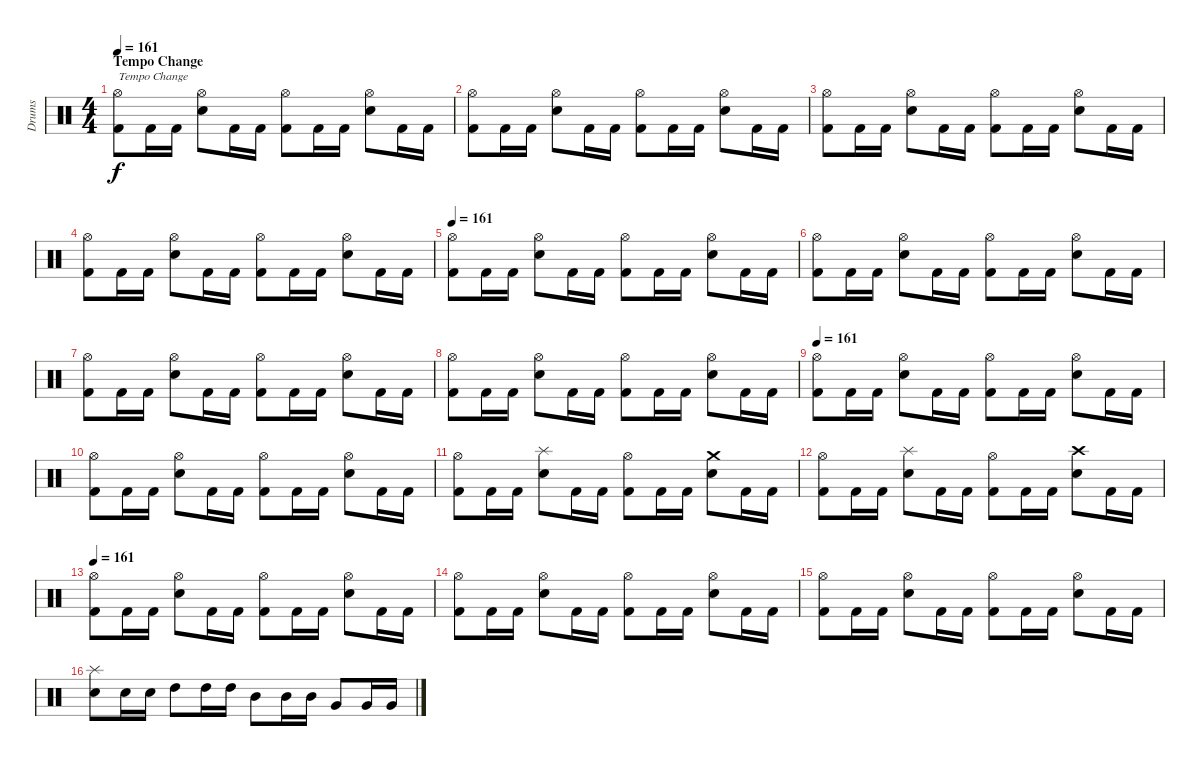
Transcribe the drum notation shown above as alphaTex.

\track ("Drums" "Drums") {instrument percussion}
\staff {score}
\articulation defaults
\ts (4 4)
\section ("" "Tempo Change")
\tempo 161
\clef neutral
\ks c
("Kick (hit) 2" "Hi-Hat (open)").8{txt "Tempo Change" dy f} "Kick (hit) 2".16 "Kick (hit) 2".16 ("Electric Snare (hit)" "Hi-Hat (open)").8 "Kick (hit) 2".16 "Kick (hit) 2".16 ("Kick (hit) 2" "Hi-Hat (open)").8 "Kick (hit) 2".16 "Kick (hit) 2".16 ("Electric Snare (hit)" "Hi-Hat (open)").8 "Kick (hit) 2".16 "Kick (hit) 2".16 |
("Kick (hit) 2" "Hi-Hat (open)").8 "Kick (hit) 2".16 "Kick (hit) 2".16 ("Electric Snare (hit)" "Hi-Hat (open)").8 "Kick (hit) 2".16 "Kick (hit) 2".16 ("Kick (hit) 2" "Hi-Hat (open)").8 "Kick (hit) 2".16 "Kick (hit) 2".16 ("Electric Snare (hit)" "Hi-Hat (open)").8 "Kick (hit) 2".16 "Kick (hit) 2".16 |
("Kick (hit) 2" "Hi-Hat (open)").8 "Kick (hit) 2".16 "Kick (hit) 2".16 ("Electric Snare (hit)" "Hi-Hat (open)").8 "Kick (hit) 2".16 "Kick (hit) 2".16 ("Kick (hit) 2" "Hi-Hat (open)").8 "Kick (hit) 2".16 "Kick (hit) 2".16 ("Electric Snare (hit)" "Hi-Hat (open)").8 "Kick (hit) 2".16 "Kick (hit) 2".16 |
("Kick (hit) 2" "Hi-Hat (open)").8 "Kick (hit) 2".16 "Kick (hit) 2".16 ("Electric Snare (hit)" "Hi-Hat (open)").8 "Kick (hit) 2".16 "Kick (hit) 2".16 ("Kick (hit) 2" "Hi-Hat (open)").8 "Kick (hit) 2".16 "Kick (hit) 2".16 ("Electric Snare (hit)" "Hi-Hat (open)").8 "Kick (hit) 2".16 "Kick (hit) 2".16 |
\tempo 161
("Kick (hit) 2" "Hi-Hat (open)").8 "Kick (hit) 2".16 "Kick (hit) 2".16 ("Electric Snare (hit)" "Hi-Hat (open)").8 "Kick (hit) 2".16 "Kick (hit) 2".16 ("Kick (hit) 2" "Hi-Hat (open)").8 "Kick (hit) 2".16 "Kick (hit) 2".16 ("Electric Snare (hit)" "Hi-Hat (open)").8 "Kick (hit) 2".16 "Kick (hit) 2".16 |
("Kick (hit) 2" "Hi-Hat (open)").8 "Kick (hit) 2".16 "Kick (hit) 2".16 ("Electric Snare (hit)" "Hi-Hat (open)").8 "Kick (hit) 2".16 "Kick (hit) 2".16 ("Kick (hit) 2" "Hi-Hat (open)").8 "Kick (hit) 2".16 "Kick (hit) 2".16 ("Electric Snare (hit)" "Hi-Hat (open)").8 "Kick (hit) 2".16 "Kick (hit) 2".16 |
("Kick (hit) 2" "Hi-Hat (open)").8 "Kick (hit) 2".16 "Kick (hit) 2".16 ("Electric Snare (hit)" "Hi-Hat (open)").8 "Kick (hit) 2".16 "Kick (hit) 2".16 ("Kick (hit) 2" "Hi-Hat (open)").8 "Kick (hit) 2".16 "Kick (hit) 2".16 ("Electric Snare (hit)" "Hi-Hat (open)").8 "Kick (hit) 2".16 "Kick (hit) 2".16 |
("Kick (hit) 2" "Hi-Hat (open)").8 "Kick (hit) 2".16 "Kick (hit) 2".16 ("Electric Snare (hit)" "Hi-Hat (open)").8 "Kick (hit) 2".16 "Kick (hit) 2".16 ("Kick (hit) 2" "Hi-Hat (open)").8 "Kick (hit) 2".16 "Kick (hit) 2".16 ("Electric Snare (hit)" "Hi-Hat (open)").8 "Kick (hit) 2".16 "Kick (hit) 2".16 |
\tempo 161
("Kick (hit) 2" "Hi-Hat (open)").8 "Kick (hit) 2".16 "Kick (hit) 2".16 ("Electric Snare (hit)" "Hi-Hat (open)").8 "Kick (hit) 2".16 "Kick (hit) 2".16 ("Kick (hit) 2" "Hi-Hat (open)").8 "Kick (hit) 2".16 "Kick (hit) 2".16 ("Electric Snare (hit)" "Hi-Hat (open)").8 "Kick (hit) 2".16 "Kick (hit) 2".16 |
("Kick (hit) 2" "Hi-Hat (open)").8 "Kick (hit) 2".16 "Kick (hit) 2".16 ("Electric Snare (hit)" "Hi-Hat (open)").8 "Kick (hit) 2".16 "Kick (hit) 2".16 ("Kick (hit) 2" "Hi-Hat (open)").8 "Kick (hit) 2".16 "Kick (hit) 2".16 ("Electric Snare (hit)" "Hi-Hat (open)").8 "Kick (hit) 2".16 "Kick (hit) 2".16 |
("Kick (hit) 2" "Hi-Hat (open)").8 "Kick (hit) 2".16 "Kick (hit) 2".16 ("Electric Snare (hit)" "Splash (hit)").8 "Kick (hit) 2".16 "Kick (hit) 2".16 ("Kick (hit) 2" "Hi-Hat (open)").8 "Kick (hit) 2".16 "Kick (hit) 2".16 ("Electric Snare (hit)" "Crash medium (hit)").8 "Kick (hit) 2".16 "Kick (hit) 2".16 |
("Kick (hit) 2" "Hi-Hat (open)").8 "Kick (hit) 2".16 "Kick (hit) 2".16 ("Electric Snare (hit)" "Splash (hit)").8 "Kick (hit) 2".16 "Kick (hit) 2".16 ("Kick (hit) 2" "Hi-Hat (open)").8 "Kick (hit) 2".16 "Kick (hit) 2".16 ("Electric Snare (hit)" "Crash high (hit)").8 "Kick (hit) 2".16 "Kick (hit) 2".16 |
\tempo 161
("Kick (hit) 2" "Hi-Hat (open)").8 "Kick (hit) 2".16 "Kick (hit) 2".16 ("Electric Snare (hit)" "Hi-Hat (open)").8 "Kick (hit) 2".16 "Kick (hit) 2".16 ("Kick (hit) 2" "Hi-Hat (open)").8 "Kick (hit) 2".16 "Kick (hit) 2".16 ("Electric Snare (hit)" "Hi-Hat (open)").8 "Kick (hit) 2".16 "Kick (hit) 2".16 |
("Kick (hit) 2" "Hi-Hat (open)").8 "Kick (hit) 2".16 "Kick (hit) 2".16 ("Electric Snare (hit)" "Hi-Hat (open)").8 "Kick (hit) 2".16 "Kick (hit) 2".16 ("Kick (hit) 2" "Hi-Hat (open)").8 "Kick (hit) 2".16 "Kick (hit) 2".16 ("Electric Snare (hit)" "Hi-Hat (open)").8 "Kick (hit) 2".16 "Kick (hit) 2".16 |
("Kick (hit) 2" "Hi-Hat (open)").8 "Kick (hit) 2".16 "Kick (hit) 2".16 ("Electric Snare (hit)" "Hi-Hat (open)").8 "Kick (hit) 2".16 "Kick (hit) 2".16 ("Kick (hit) 2" "Hi-Hat (open)").8 "Kick (hit) 2".16 "Kick (hit) 2".16 ("Electric Snare (hit)" "Hi-Hat (open)").8 "Kick (hit) 2".16 "Kick (hit) 2".16 |
("Electric Snare (hit)" "Splash (hit)").8 "Electric Snare (hit)".16 "Electric Snare (hit)".16 "High Tom (hit)".8 "High Tom (hit)".16 "High Tom (hit)".16 "Mid Tom (hit)".8 "Mid Tom (hit)".16 "Mid Tom (hit)".16 "Very Low Tom (hit)".8 "Very Low Tom (hit)".16 "Very Low Tom (hit)".16
